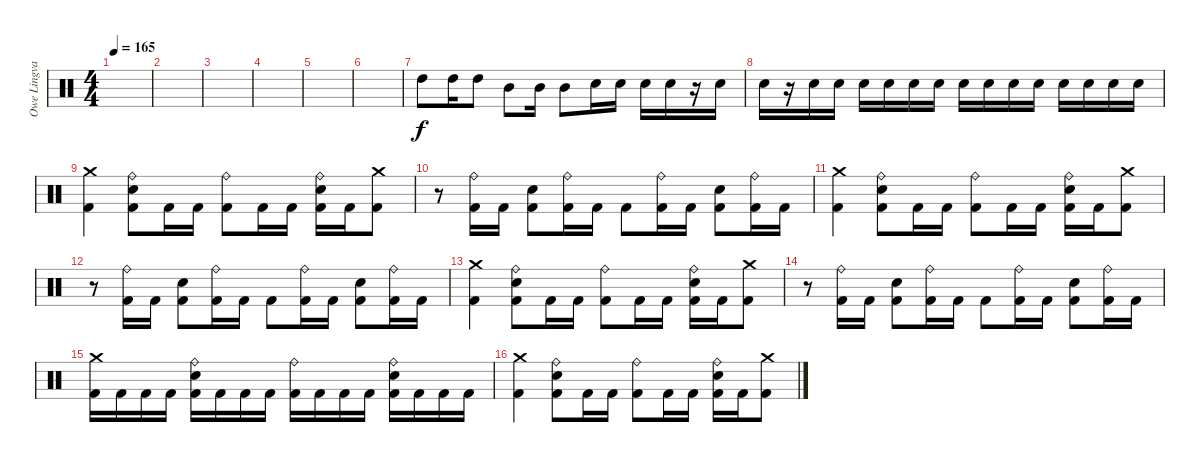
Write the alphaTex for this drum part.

\track ("Owe Lingvall" "Owe Lingva") {instrument percussion}
\staff {score}
\articulation defaults
\ts (4 4)
\tempo 165
\clef neutral
\ks c
|
|
|
|
|
|
"High Tom (hit)".8 "High Tom (hit)".16 "High Tom (hit)".8 "Mid Tom (hit)".8 "Mid Tom (hit)".16 "Mid Tom (hit)".8 "Snare (hit) 2".16 "Snare (hit) 2".16 "Snare (hit) 2".16 "Snare (hit) 2".16 r.16 "Snare (hit) 2".16 |
"Snare (hit) 2".16 r.16 "Snare (hit) 2".16 "Snare (hit) 2".16 "Snare (hit) 2".16 "Snare (hit) 2".16 "Snare (hit) 2".16 "Snare (hit) 2".16 "Snare (hit) 2".16 "Snare (hit) 2".16 "Snare (hit) 2".16 "Snare (hit) 2".16 "Snare (hit) 2".16 "Snare (hit) 2".16 "Snare (hit) 2".16 "Snare (hit) 2".16 |
("Crash medium (hit)" "Kick (hit) 2").4 ("Ride (bell)" "Snare (hit) 2" "Kick (hit) 2").8 "Kick (hit) 2".16 "Kick (hit) 2".16 ("Ride (bell)" "Kick (hit) 2").8 "Kick (hit) 2".16 "Kick (hit) 2".16 ("Ride (bell)" "Snare (hit) 2" "Kick (hit) 2").16 "Kick (hit) 2".16 ("Crash medium (hit)" "Kick (hit) 2").8 |
r.8 ("Ride (bell)" "Kick (hit) 2").16 "Kick (hit) 2".16 ("Snare (hit) 2" "Kick (hit) 2").8 ("Ride (bell)" "Kick (hit) 2").16 "Kick (hit) 2".16 "Kick (hit) 2".8 ("Ride (bell)" "Kick (hit) 2").16 "Kick (hit) 2".16 ("Snare (hit) 2" "Kick (hit) 2").8 ("Ride (bell)" "Kick (hit) 2").16 "Kick (hit) 2".16 |
("Crash medium (hit)" "Kick (hit) 2").4 ("Ride (bell)" "Snare (hit) 2" "Kick (hit) 2").8 "Kick (hit) 2".16 "Kick (hit) 2".16 ("Ride (bell)" "Kick (hit) 2").8 "Kick (hit) 2".16 "Kick (hit) 2".16 ("Ride (bell)" "Snare (hit) 2" "Kick (hit) 2").16 "Kick (hit) 2".16 ("Crash medium (hit)" "Kick (hit) 2").8 |
r.8 ("Ride (bell)" "Kick (hit) 2").16 "Kick (hit) 2".16 ("Snare (hit) 2" "Kick (hit) 2").8 ("Ride (bell)" "Kick (hit) 2").16 "Kick (hit) 2".16 "Kick (hit) 2".8 ("Ride (bell)" "Kick (hit) 2").16 "Kick (hit) 2".16 ("Snare (hit) 2" "Kick (hit) 2").8 ("Ride (bell)" "Kick (hit) 2").16 "Kick (hit) 2".16 |
("Crash medium (hit)" "Kick (hit) 2").4 ("Ride (bell)" "Snare (hit) 2" "Kick (hit) 2").8 "Kick (hit) 2".16 "Kick (hit) 2".16 ("Ride (bell)" "Kick (hit) 2").8 "Kick (hit) 2".16 "Kick (hit) 2".16 ("Ride (bell)" "Snare (hit) 2" "Kick (hit) 2").16 "Kick (hit) 2".16 ("Crash medium (hit)" "Kick (hit) 2").8 |
r.8 ("Ride (bell)" "Kick (hit) 2").16 "Kick (hit) 2".16 ("Snare (hit) 2" "Kick (hit) 2").8 ("Ride (bell)" "Kick (hit) 2").16 "Kick (hit) 2".16 "Kick (hit) 2".8 ("Ride (bell)" "Kick (hit) 2").16 "Kick (hit) 2".16 ("Snare (hit) 2" "Kick (hit) 2").8 ("Ride (bell)" "Kick (hit) 2").16 "Kick (hit) 2".16 |
("Crash medium (hit)" "Kick (hit) 2").16 "Kick (hit) 2".16 "Kick (hit) 2".16 "Kick (hit) 2".16 ("Ride (bell)" "Snare (hit) 2" "Kick (hit) 2").16 "Kick (hit) 2".16 "Kick (hit) 2".16 "Kick (hit) 2".16 ("Ride (bell)" "Kick (hit) 2").16 "Kick (hit) 2".16 "Kick (hit) 2".16 "Kick (hit) 2".16 ("Ride (bell)" "Snare (hit) 2" "Kick (hit) 2").16 "Kick (hit) 2".16 "Kick (hit) 2".16 "Kick (hit) 2".16 |
("Crash medium (hit)" "Kick (hit) 2").4 ("Ride (bell)" "Snare (hit) 2" "Kick (hit) 2").8 "Kick (hit) 2".16 "Kick (hit) 2".16 ("Ride (bell)" "Kick (hit) 2").8 "Kick (hit) 2".16 "Kick (hit) 2".16 ("Ride (bell)" "Snare (hit) 2" "Kick (hit) 2").16 "Kick (hit) 2".16 ("Crash medium (hit)" "Kick (hit) 2").8
